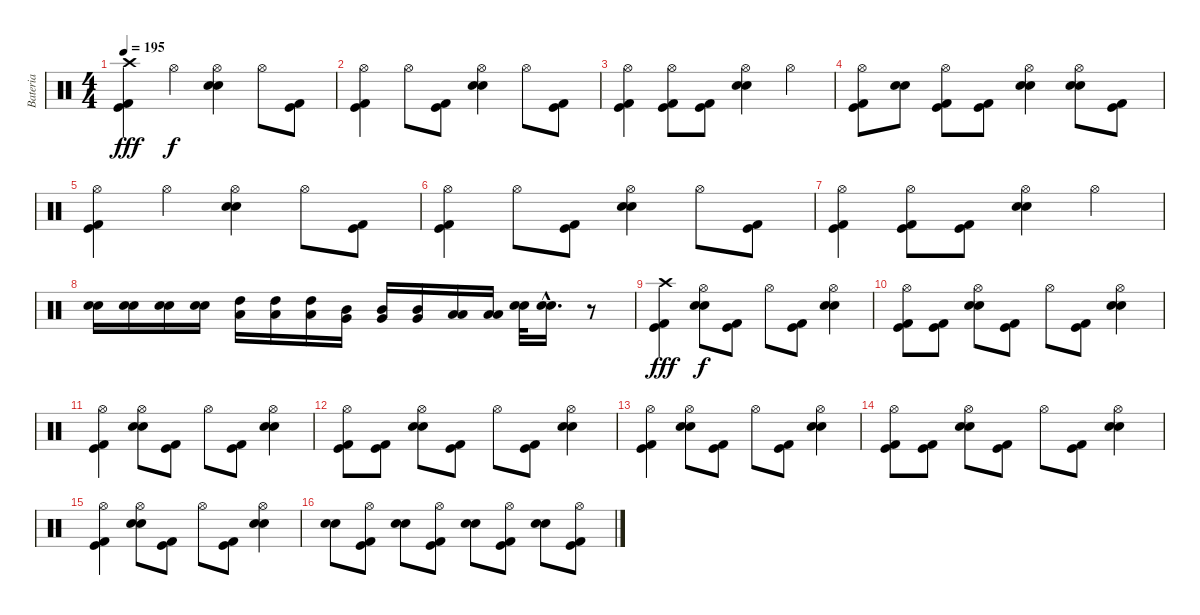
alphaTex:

\track ("Bateria" "Bateria") {instrument percussion}
\staff {score}
\articulation defaults
\ts (4 4)
\tempo 195
\clef neutral
\ks c
("Crash high (hit)" "Kick (hit) 2" "Kick (hit)").4{dy fff} "Hi-Hat (open)".4{dy f} ("Hi-Hat (open)" "Electric Snare (hit)" "Snare (hit) 2").4 "Hi-Hat (open)".8 ("Kick (hit) 2" "Kick (hit)").8 |
("Hi-Hat (open)" "Kick (hit) 2" "Kick (hit)").4 "Hi-Hat (open)".8 ("Kick (hit) 2" "Kick (hit)").8 ("Hi-Hat (open)" "Electric Snare (hit)" "Snare (hit) 2").4 "Hi-Hat (open)".8 ("Kick (hit) 2" "Kick (hit)").8 |
("Hi-Hat (open)" "Kick (hit) 2" "Kick (hit)").4 ("Hi-Hat (open)" "Kick (hit) 2" "Kick (hit)").8 ("Kick (hit) 2" "Kick (hit)").8 ("Hi-Hat (open)" "Electric Snare (hit)" "Snare (hit) 2").4 "Hi-Hat (open)".4 |
("Hi-Hat (open)" "Kick (hit) 2" "Kick (hit)").8 ("Electric Snare (hit)" "Snare (hit) 2").8 ("Hi-Hat (open)" "Kick (hit) 2" "Kick (hit)").8 ("Kick (hit) 2" "Kick (hit)").8 ("Hi-Hat (open)" "Electric Snare (hit)" "Snare (hit) 2").4 ("Hi-Hat (open)" "Electric Snare (hit)" "Snare (hit) 2").8 ("Kick (hit) 2" "Kick (hit)").8 |
("Hi-Hat (open)" "Kick (hit) 2" "Kick (hit)").4 "Hi-Hat (open)".4 ("Hi-Hat (open)" "Electric Snare (hit)" "Snare (hit) 2").4 "Hi-Hat (open)".8 ("Kick (hit) 2" "Kick (hit)").8 |
("Hi-Hat (open)" "Kick (hit) 2" "Kick (hit)").4 "Hi-Hat (open)".8 ("Kick (hit) 2" "Kick (hit)").8 ("Hi-Hat (open)" "Electric Snare (hit)" "Snare (hit) 2").4 "Hi-Hat (open)".8 ("Kick (hit) 2" "Kick (hit)").8 |
("Hi-Hat (open)" "Kick (hit) 2" "Kick (hit)").4 ("Hi-Hat (open)" "Kick (hit) 2" "Kick (hit)").8 ("Kick (hit) 2" "Kick (hit)").8 ("Hi-Hat (open)" "Electric Snare (hit)" "Snare (hit) 2").4 "Hi-Hat (open)".4 |
("Electric Snare (hit)" "Snare (hit) 2").16 ("Electric Snare (hit)" "Snare (hit) 2").16 ("Electric Snare (hit)" "Snare (hit) 2").16 ("Electric Snare (hit)" "Snare (hit) 2").16 ("High Tom (hit)" "Low Tom (hit)").16 ("High Tom (hit)" "Low Tom (hit)").16 ("High Tom (hit)" "Low Tom (hit)").16 ("Mid Tom (hit)" "Very Low Tom (hit)").16 ("Mid Tom (hit)" "Very Low Tom (hit)").16 ("Mid Tom (hit)" "Very Low Tom (hit)").16 ("Low Tom (hit)" "Low Floor Tom (hit)").16 ("Low Tom (hit)" "Low Floor Tom (hit)").16 ("Electric Snare (hit)" "Snare (hit) 2").32 ("Electric Snare (hit)"{hac} "Snare (hit) 2"{hac}).16{d} r.8 |
("Crash high (hit)" "Kick (hit) 2" "Kick (hit)").4{dy fff} ("Hi-Hat (open)" "Electric Snare (hit)" "Snare (hit) 2").8{dy f} ("Kick (hit) 2" "Kick (hit)").8 "Hi-Hat (open)".8 ("Kick (hit) 2" "Kick (hit)").8 ("Hi-Hat (open)" "Electric Snare (hit)" "Snare (hit) 2").4 |
("Hi-Hat (open)" "Kick (hit) 2" "Kick (hit)").8 ("Kick (hit) 2" "Kick (hit)").8 ("Hi-Hat (open)" "Electric Snare (hit)" "Snare (hit) 2").8 ("Kick (hit) 2" "Kick (hit)").8 "Hi-Hat (open)".8 ("Kick (hit) 2" "Kick (hit)").8 ("Hi-Hat (open)" "Electric Snare (hit)" "Snare (hit) 2").4 |
("Hi-Hat (open)" "Kick (hit) 2" "Kick (hit)").4 ("Hi-Hat (open)" "Electric Snare (hit)" "Snare (hit) 2").8 ("Kick (hit) 2" "Kick (hit)").8 "Hi-Hat (open)".8 ("Kick (hit) 2" "Kick (hit)").8 ("Hi-Hat (open)" "Electric Snare (hit)" "Snare (hit) 2").4 |
("Hi-Hat (open)" "Kick (hit) 2" "Kick (hit)").8 ("Kick (hit) 2" "Kick (hit)").8 ("Hi-Hat (open)" "Electric Snare (hit)" "Snare (hit) 2").8 ("Kick (hit) 2" "Kick (hit)").8 "Hi-Hat (open)".8 ("Kick (hit) 2" "Kick (hit)").8 ("Hi-Hat (open)" "Electric Snare (hit)" "Snare (hit) 2").4 |
("Hi-Hat (open)" "Kick (hit) 2" "Kick (hit)").4 ("Hi-Hat (open)" "Electric Snare (hit)" "Snare (hit) 2").8 ("Kick (hit) 2" "Kick (hit)").8 "Hi-Hat (open)".8 ("Kick (hit) 2" "Kick (hit)").8 ("Hi-Hat (open)" "Electric Snare (hit)" "Snare (hit) 2").4 |
("Hi-Hat (open)" "Kick (hit) 2" "Kick (hit)").8 ("Kick (hit) 2" "Kick (hit)").8 ("Hi-Hat (open)" "Electric Snare (hit)" "Snare (hit) 2").8 ("Kick (hit) 2" "Kick (hit)").8 "Hi-Hat (open)".8 ("Kick (hit) 2" "Kick (hit)").8 ("Hi-Hat (open)" "Electric Snare (hit)" "Snare (hit) 2").4 |
("Hi-Hat (open)" "Kick (hit) 2" "Kick (hit)").4 ("Hi-Hat (open)" "Electric Snare (hit)" "Snare (hit) 2").8 ("Kick (hit) 2" "Kick (hit)").8 "Hi-Hat (open)".8 ("Kick (hit) 2" "Kick (hit)").8 ("Hi-Hat (open)" "Electric Snare (hit)" "Snare (hit) 2").4 |
("Electric Snare (hit)" "Snare (hit) 2").8 ("Hi-Hat (open)" "Kick (hit) 2" "Kick (hit)").8 ("Electric Snare (hit)" "Snare (hit) 2").8 ("Hi-Hat (open)" "Kick (hit) 2" "Kick (hit)").8 ("Electric Snare (hit)" "Snare (hit) 2").8 ("Hi-Hat (open)" "Kick (hit) 2" "Kick (hit)").8 ("Electric Snare (hit)" "Snare (hit) 2").8 ("Hi-Hat (open)" "Kick (hit) 2" "Kick (hit)").8
